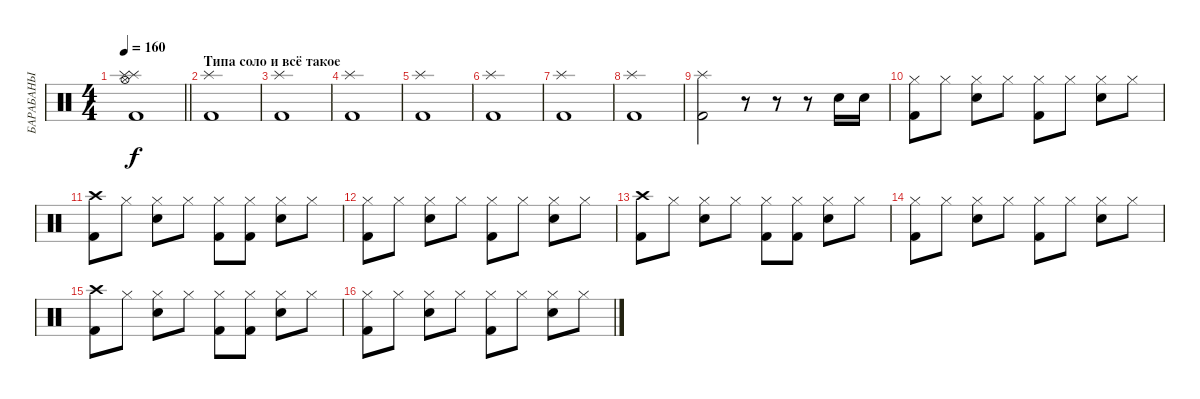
\track ("БАРАБАНЫ" "БАРАБАНЫ") {instrument percussion}
\staff {score}
\articulation defaults
\ts (4 4)
\tempo 160
\clef neutral
\barLineRight lightlight
\ks c
("Hi-Hat (open)" "Kick (hit) 2" "Splash (hit)" "Splash (hit)").1{dy f} |
\section ("" "Типа соло и всё такое")
("Kick (hit) 2" "Splash (hit)").1 |
("Kick (hit) 2" "Splash (hit)").1 |
("Kick (hit) 2" "Splash (hit)").1 |
("Kick (hit) 2" "Splash (hit)").1 |
("Kick (hit) 2" "Splash (hit)").1 |
("Kick (hit) 2" "Splash (hit)").1 |
("Kick (hit) 2" "Splash (hit)").1 |
("Kick (hit) 2" "Splash (hit)").2 r.8 r.8 r.8 "Electric Snare (hit)".16 "Electric Snare (hit)".16 |
("Hi-Hat (closed)" "Kick (hit) 2").8 "Hi-Hat (closed)".8 ("Hi-Hat (closed)" "Electric Snare (hit)").8 "Hi-Hat (closed)".8 ("Hi-Hat (closed)" "Kick (hit) 2").8 "Hi-Hat (closed)".8 ("Hi-Hat (closed)" "Electric Snare (hit)").8 "Hi-Hat (closed)".8 |
("Crash high (hit)" "Kick (hit) 2").8 "Hi-Hat (closed)".8 ("Hi-Hat (closed)" "Electric Snare (hit)").8 "Hi-Hat (closed)".8 ("Hi-Hat (closed)" "Kick (hit) 2").8 ("Hi-Hat (closed)" "Kick (hit) 2").8 ("Hi-Hat (closed)" "Electric Snare (hit)").8 "Hi-Hat (closed)".8 |
("Hi-Hat (closed)" "Kick (hit) 2").8 "Hi-Hat (closed)".8 ("Hi-Hat (closed)" "Electric Snare (hit)").8 "Hi-Hat (closed)".8 ("Hi-Hat (closed)" "Kick (hit) 2").8 "Hi-Hat (closed)".8 ("Hi-Hat (closed)" "Electric Snare (hit)").8 "Hi-Hat (closed)".8 |
("Crash high (hit)" "Kick (hit) 2").8 "Hi-Hat (closed)".8 ("Hi-Hat (closed)" "Electric Snare (hit)").8 "Hi-Hat (closed)".8 ("Hi-Hat (closed)" "Kick (hit) 2").8 ("Hi-Hat (closed)" "Kick (hit) 2").8 ("Hi-Hat (closed)" "Electric Snare (hit)").8 "Hi-Hat (closed)".8 |
("Hi-Hat (closed)" "Kick (hit) 2").8 "Hi-Hat (closed)".8 ("Hi-Hat (closed)" "Electric Snare (hit)").8 "Hi-Hat (closed)".8 ("Hi-Hat (closed)" "Kick (hit) 2").8 "Hi-Hat (closed)".8 ("Hi-Hat (closed)" "Electric Snare (hit)").8 "Hi-Hat (closed)".8 |
("Crash high (hit)" "Kick (hit) 2").8 "Hi-Hat (closed)".8 ("Hi-Hat (closed)" "Electric Snare (hit)").8 "Hi-Hat (closed)".8 ("Hi-Hat (closed)" "Kick (hit) 2").8 ("Hi-Hat (closed)" "Kick (hit) 2").8 ("Hi-Hat (closed)" "Electric Snare (hit)").8 "Hi-Hat (closed)".8 |
("Hi-Hat (closed)" "Kick (hit) 2").8 "Hi-Hat (closed)".8 ("Hi-Hat (closed)" "Electric Snare (hit)").8 "Hi-Hat (closed)".8 ("Hi-Hat (closed)" "Kick (hit) 2").8 "Hi-Hat (closed)".8 ("Hi-Hat (closed)" "Electric Snare (hit)").8 "Hi-Hat (closed)".8
